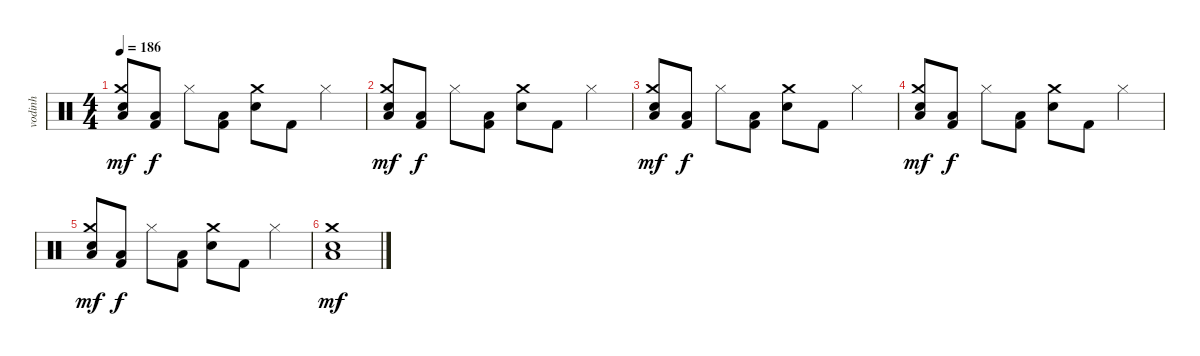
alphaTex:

\track ("vodinh" "vodinh") {instrument percussion}
\staff {score}
\articulation defaults
\ts (4 4)
\tempo 186
\clef neutral
\ks c
("Snare (hit) 2" "Crash medium (hit)" "Low Floor Tom (hit)").8{dy mf} ("Kick (hit) 2" "Low Floor Tom (hit)").8{dy f} "Hi-Hat (closed)".8 ("Kick (hit) 2" "Low Floor Tom (hit)").8 ("Snare (hit) 2" "Crash medium (hit)").8 "Kick (hit) 2".8 "Hi-Hat (closed)".4 |
("Snare (hit) 2" "Crash medium (hit)" "Low Floor Tom (hit)").8{dy mf} ("Kick (hit) 2" "Low Floor Tom (hit)").8{dy f} "Hi-Hat (closed)".8 ("Kick (hit) 2" "Low Floor Tom (hit)").8 ("Snare (hit) 2" "Crash medium (hit)").8 "Kick (hit) 2".8 "Hi-Hat (closed)".4 |
("Snare (hit) 2" "Crash medium (hit)" "Low Floor Tom (hit)").8{dy mf} ("Kick (hit) 2" "Low Floor Tom (hit)").8{dy f} "Hi-Hat (closed)".8 ("Kick (hit) 2" "Low Floor Tom (hit)").8 ("Snare (hit) 2" "Crash medium (hit)").8 "Kick (hit) 2".8 "Hi-Hat (closed)".4 |
("Snare (hit) 2" "Crash medium (hit)" "Low Floor Tom (hit)").8{dy mf} ("Kick (hit) 2" "Low Floor Tom (hit)").8{dy f} "Hi-Hat (closed)".8 ("Kick (hit) 2" "Low Floor Tom (hit)").8 ("Snare (hit) 2" "Crash medium (hit)").8 "Kick (hit) 2".8 "Hi-Hat (closed)".4 |
("Snare (hit) 2" "Crash medium (hit)" "Low Floor Tom (hit)").8{dy mf} ("Kick (hit) 2" "Low Floor Tom (hit)").8{dy f} "Hi-Hat (closed)".8 ("Kick (hit) 2" "Low Floor Tom (hit)").8 ("Snare (hit) 2" "Crash medium (hit)").8 "Kick (hit) 2".8 "Hi-Hat (closed)".4 |
("Snare (hit) 2" "Crash medium (hit)" "Low Floor Tom (hit)").1{dy mf}
